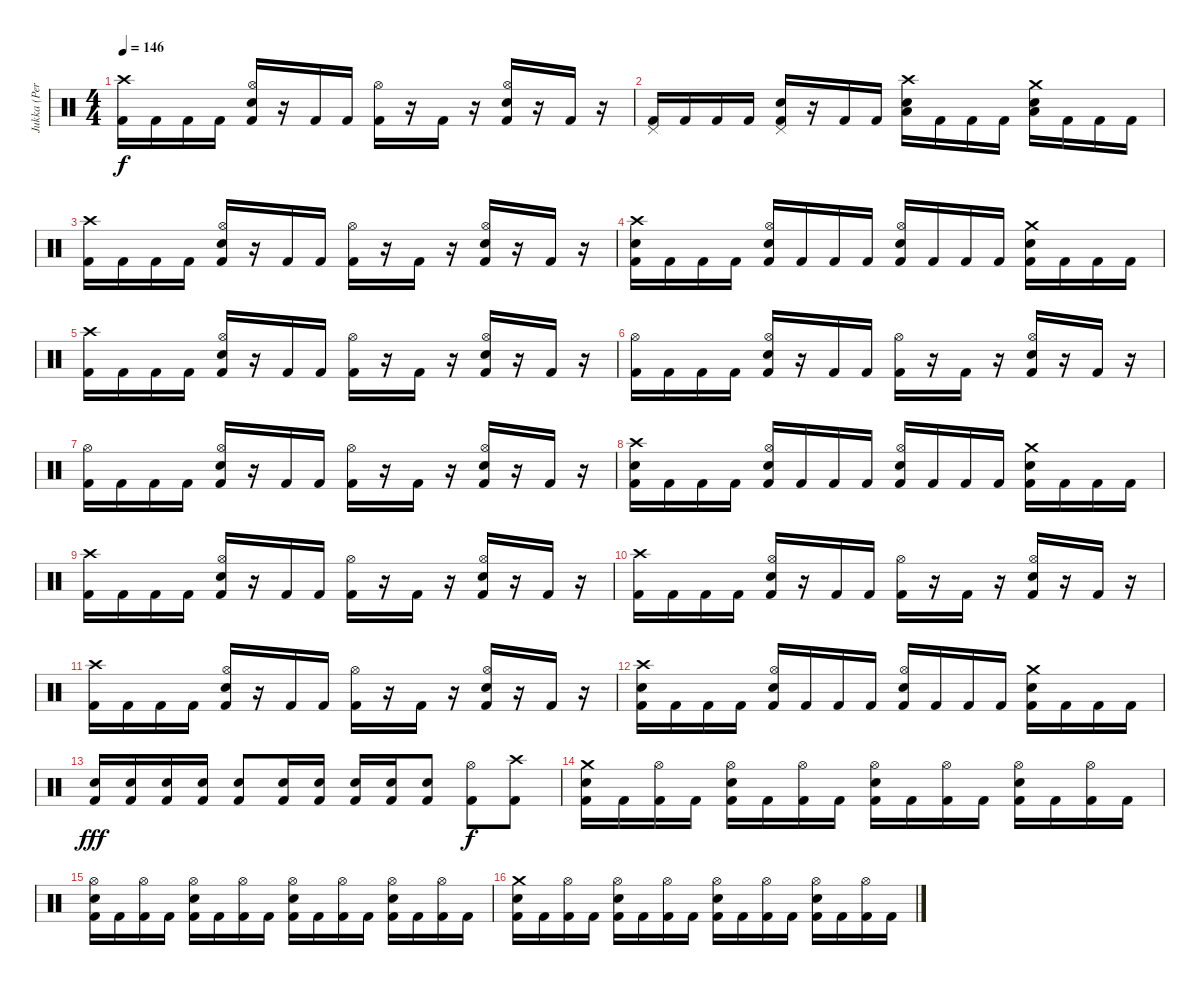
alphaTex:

\track ("Jukka (Percussion)" "Jukka (Per") {instrument percussion}
\staff {score}
\articulation defaults
\ts (4 4)
\tempo 146
\clef neutral
\ks c
("Crash high (hit)" "Kick (hit) 2").16{dy f} "Kick (hit) 2".16 "Kick (hit) 2".16 "Kick (hit) 2".16 ("Hi-Hat (open)" "Snare (hit) 2" "Kick (hit) 2").16 r.16 "Kick (hit) 2".16 "Kick (hit) 2".16 ("Hi-Hat (open)" "Kick (hit) 2").16 r.16 "Kick (hit) 2".16 r.16 ("Hi-Hat (open)" "Snare (hit) 2" "Kick (hit) 2").16 r.16 "Kick (hit) 2".16 r.16 |
("Pedal Hi-Hat (hit)" "Kick (hit) 2").16 "Kick (hit) 2".16 "Kick (hit) 2".16 "Kick (hit) 2".16 ("Pedal Hi-Hat (hit)" "Snare (hit) 2" "Kick (hit) 2").16 r.16 "Kick (hit) 2".16 "Kick (hit) 2".16 ("Crash high (hit)" "Snare (hit) 2" "Low Tom (hit)").16 "Kick (hit) 2".16 "Kick (hit) 2".16 "Kick (hit) 2".16 ("Crash medium (hit)" "Snare (hit) 2" "Low Tom (hit)").16 "Kick (hit) 2".16 "Kick (hit) 2".16 "Kick (hit) 2".16 |
("Crash high (hit)" "Kick (hit) 2").16 "Kick (hit) 2".16 "Kick (hit) 2".16 "Kick (hit) 2".16 ("Hi-Hat (open)" "Snare (hit) 2" "Kick (hit) 2").16 r.16 "Kick (hit) 2".16 "Kick (hit) 2".16 ("Hi-Hat (open)" "Kick (hit) 2").16 r.16 "Kick (hit) 2".16 r.16 ("Hi-Hat (open)" "Snare (hit) 2" "Kick (hit) 2").16 r.16 "Kick (hit) 2".16 r.16 |
("Crash high (hit)" "Snare (hit) 2" "Kick (hit) 2").16 "Kick (hit) 2".16 "Kick (hit) 2".16 "Kick (hit) 2".16 ("Hi-Hat (open)" "Snare (hit) 2" "Kick (hit) 2").16 "Kick (hit) 2".16 "Kick (hit) 2".16 "Kick (hit) 2".16 ("Hi-Hat (open)" "Snare (hit) 2" "Kick (hit) 2").16 "Kick (hit) 2".16 "Kick (hit) 2".16 "Kick (hit) 2".16 ("Crash medium (hit)" "Snare (hit) 2" "Kick (hit) 2").16 "Kick (hit) 2".16 "Kick (hit) 2".16 "Kick (hit) 2".16 |
("Crash high (hit)" "Kick (hit) 2").16 "Kick (hit) 2".16 "Kick (hit) 2".16 "Kick (hit) 2".16 ("Hi-Hat (open)" "Snare (hit) 2" "Kick (hit) 2").16 r.16 "Kick (hit) 2".16 "Kick (hit) 2".16 ("Hi-Hat (open)" "Kick (hit) 2").16 r.16 "Kick (hit) 2".16 r.16 ("Hi-Hat (open)" "Snare (hit) 2" "Kick (hit) 2").16 r.16 "Kick (hit) 2".16 r.16 |
("Hi-Hat (open)" "Kick (hit) 2").16 "Kick (hit) 2".16 "Kick (hit) 2".16 "Kick (hit) 2".16 ("Hi-Hat (open)" "Snare (hit) 2" "Kick (hit) 2").16 r.16 "Kick (hit) 2".16 "Kick (hit) 2".16 ("Hi-Hat (open)" "Kick (hit) 2").16 r.16 "Kick (hit) 2".16 r.16 ("Hi-Hat (open)" "Snare (hit) 2" "Kick (hit) 2").16 r.16 "Kick (hit) 2".16 r.16 |
("Hi-Hat (open)" "Kick (hit) 2").16 "Kick (hit) 2".16 "Kick (hit) 2".16 "Kick (hit) 2".16 ("Hi-Hat (open)" "Snare (hit) 2" "Kick (hit) 2").16 r.16 "Kick (hit) 2".16 "Kick (hit) 2".16 ("Hi-Hat (open)" "Kick (hit) 2").16 r.16 "Kick (hit) 2".16 r.16 ("Hi-Hat (open)" "Snare (hit) 2" "Kick (hit) 2").16 r.16 "Kick (hit) 2".16 r.16 |
("Crash high (hit)" "Snare (hit) 2" "Kick (hit) 2").16 "Kick (hit) 2".16 "Kick (hit) 2".16 "Kick (hit) 2".16 ("Hi-Hat (open)" "Snare (hit) 2" "Kick (hit) 2").16 "Kick (hit) 2".16 "Kick (hit) 2".16 "Kick (hit) 2".16 ("Hi-Hat (open)" "Snare (hit) 2" "Kick (hit) 2").16 "Kick (hit) 2".16 "Kick (hit) 2".16 "Kick (hit) 2".16 ("Crash medium (hit)" "Snare (hit) 2" "Kick (hit) 2").16 "Kick (hit) 2".16 "Kick (hit) 2".16 "Kick (hit) 2".16 |
("Crash high (hit)" "Kick (hit) 2").16 "Kick (hit) 2".16 "Kick (hit) 2".16 "Kick (hit) 2".16 ("Hi-Hat (open)" "Snare (hit) 2" "Kick (hit) 2").16 r.16 "Kick (hit) 2".16 "Kick (hit) 2".16 ("Hi-Hat (open)" "Kick (hit) 2").16 r.16 "Kick (hit) 2".16 r.16 ("Hi-Hat (open)" "Snare (hit) 2" "Kick (hit) 2").16 r.16 "Kick (hit) 2".16 r.16 |
("Crash high (hit)" "Kick (hit) 2").16 "Kick (hit) 2".16 "Kick (hit) 2".16 "Kick (hit) 2".16 ("Hi-Hat (open)" "Snare (hit) 2" "Kick (hit) 2").16 r.16 "Kick (hit) 2".16 "Kick (hit) 2".16 ("Hi-Hat (open)" "Kick (hit) 2").16 r.16 "Kick (hit) 2".16 r.16 ("Hi-Hat (open)" "Snare (hit) 2" "Kick (hit) 2").16 r.16 "Kick (hit) 2".16 r.16 |
("Crash high (hit)" "Kick (hit) 2").16 "Kick (hit) 2".16 "Kick (hit) 2".16 "Kick (hit) 2".16 ("Hi-Hat (open)" "Snare (hit) 2" "Kick (hit) 2").16 r.16 "Kick (hit) 2".16 "Kick (hit) 2".16 ("Hi-Hat (open)" "Kick (hit) 2").16 r.16 "Kick (hit) 2".16 r.16 ("Hi-Hat (open)" "Snare (hit) 2" "Kick (hit) 2").16 r.16 "Kick (hit) 2".16 r.16 |
("Crash high (hit)" "Snare (hit) 2" "Kick (hit) 2").16 "Kick (hit) 2".16 "Kick (hit) 2".16 "Kick (hit) 2".16 ("Hi-Hat (open)" "Snare (hit) 2" "Kick (hit) 2").16 "Kick (hit) 2".16 "Kick (hit) 2".16 "Kick (hit) 2".16 ("Hi-Hat (open)" "Snare (hit) 2" "Kick (hit) 2").16 "Kick (hit) 2".16 "Kick (hit) 2".16 "Kick (hit) 2".16 ("Crash medium (hit)" "Snare (hit) 2" "Kick (hit) 2").16 "Kick (hit) 2".16 "Kick (hit) 2".16 "Kick (hit) 2".16 |
("Snare (hit) 2" "Kick (hit) 2").16{dy fff} ("Snare (hit) 2" "Kick (hit) 2").16 ("Snare (hit) 2" "Kick (hit) 2").16 ("Snare (hit) 2" "Kick (hit) 2").16 ("Snare (hit) 2" "Kick (hit) 2").8 ("Snare (hit) 2" "Kick (hit) 2").16 ("Snare (hit) 2" "Kick (hit) 2").16 ("Snare (hit) 2" "Kick (hit) 2").16 ("Snare (hit) 2" "Kick (hit) 2").16 ("Snare (hit) 2" "Kick (hit) 2").8 ("Hi-Hat (open)" "Kick (hit) 2").8{dy f} ("Crash high (hit)" "Kick (hit) 2").8 |
("Crash medium (hit)" "Snare (hit) 2" "Kick (hit) 2").16 "Kick (hit) 2".16 ("Hi-Hat (open)" "Kick (hit) 2").16 "Kick (hit) 2".16 ("Hi-Hat (open)" "Snare (hit) 2" "Kick (hit) 2").16 "Kick (hit) 2".16 ("Hi-Hat (open)" "Kick (hit) 2").16 "Kick (hit) 2".16 ("Hi-Hat (open)" "Snare (hit) 2" "Kick (hit) 2").16 "Kick (hit) 2".16 ("Hi-Hat (open)" "Kick (hit) 2").16 "Kick (hit) 2".16 ("Hi-Hat (open)" "Snare (hit) 2" "Kick (hit) 2").16 "Kick (hit) 2".16 ("Hi-Hat (open)" "Kick (hit) 2").16 "Kick (hit) 2".16 |
("Hi-Hat (open)" "Snare (hit) 2" "Kick (hit) 2").16 "Kick (hit) 2".16 ("Hi-Hat (open)" "Kick (hit) 2").16 "Kick (hit) 2".16 ("Hi-Hat (open)" "Snare (hit) 2" "Kick (hit) 2").16 "Kick (hit) 2".16 ("Hi-Hat (open)" "Kick (hit) 2").16 "Kick (hit) 2".16 ("Hi-Hat (open)" "Snare (hit) 2" "Kick (hit) 2").16 "Kick (hit) 2".16 ("Hi-Hat (open)" "Kick (hit) 2").16 "Kick (hit) 2".16 ("Hi-Hat (open)" "Snare (hit) 2" "Kick (hit) 2").16 "Kick (hit) 2".16 ("Hi-Hat (open)" "Kick (hit) 2").16 "Kick (hit) 2".16 |
("Crash medium (hit)" "Snare (hit) 2" "Kick (hit) 2").16 "Kick (hit) 2".16 ("Hi-Hat (open)" "Kick (hit) 2").16 "Kick (hit) 2".16 ("Hi-Hat (open)" "Snare (hit) 2" "Kick (hit) 2").16 "Kick (hit) 2".16 ("Hi-Hat (open)" "Kick (hit) 2").16 "Kick (hit) 2".16 ("Hi-Hat (open)" "Snare (hit) 2" "Kick (hit) 2").16 "Kick (hit) 2".16 ("Hi-Hat (open)" "Kick (hit) 2").16 "Kick (hit) 2".16 ("Hi-Hat (open)" "Snare (hit) 2" "Kick (hit) 2").16 "Kick (hit) 2".16 ("Hi-Hat (open)" "Kick (hit) 2").16 "Kick (hit) 2".16
